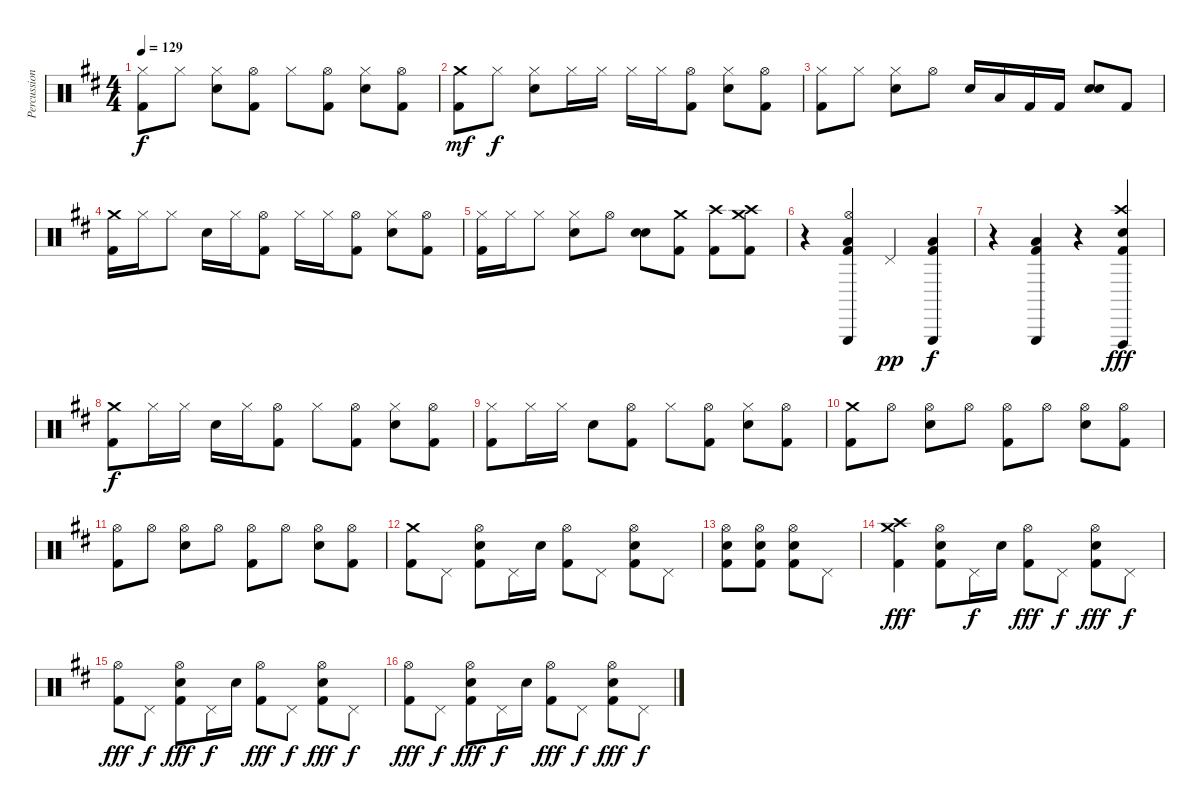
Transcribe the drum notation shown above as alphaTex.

\track ("Percussion" "Percussion") {instrument percussion}
\staff {score}
\articulation defaults
\ts (4 4)
\tempo 129
\clef neutral
\ks d
("Hi-Hat (closed)" "Kick (hit) 2").8{dy f} "Hi-Hat (closed)".8 ("Hi-Hat (closed)" "Electric Snare (hit)").8 ("Hi-Hat (open)" "Kick (hit) 2").8 "Hi-Hat (closed)".8 ("Hi-Hat (open)" "Kick (hit) 2").8 ("Hi-Hat (closed)" "Electric Snare (hit)").8 ("Hi-Hat (open)" "Kick (hit) 2").8 |
("Crash medium (hit)" "Kick (hit) 2").8{dy mf} "Hi-Hat (closed)".8{dy f} ("Hi-Hat (closed)" "Electric Snare (hit)").8 "Hi-Hat (closed)".16 "Hi-Hat (closed)".16 "Hi-Hat (closed)".16 "Hi-Hat (closed)".16 ("Hi-Hat (open)" "Kick (hit) 2").8 ("Hi-Hat (closed)" "Electric Snare (hit)").8 ("Hi-Hat (open)" "Kick (hit) 2").8 |
("Hi-Hat (closed)" "Kick (hit) 2").8 "Hi-Hat (closed)".8 ("Hi-Hat (closed)" "Electric Snare (hit)").8 "Hi-Hat (open)".8 "Electric Snare (hit)".16 "Low Floor Tom (hit)".16 "Kick (hit) 2".16 "Kick (hit) 2".16 ("Electric Snare (hit)" "Electric Snare (hit)").8{bd 240} "Kick (hit) 2".8 |
("Crash medium (hit)" "Kick (hit) 2").16 "Hi-Hat (closed)".16 "Hi-Hat (closed)".8 "Electric Snare (hit)".16 "Hi-Hat (closed)".16 ("Hi-Hat (open)" "Kick (hit) 2").8 "Hi-Hat (closed)".16 "Hi-Hat (closed)".16 ("Hi-Hat (open)" "Kick (hit) 2").8 ("Hi-Hat (closed)" "Electric Snare (hit)").8 ("Hi-Hat (open)" "Kick (hit) 2").8 |
("Hi-Hat (closed)" "Kick (hit) 2").16 "Hi-Hat (closed)".16 "Hi-Hat (closed)".8 ("Hi-Hat (closed)" "Electric Snare (hit)").8 "Hi-Hat (open)".8 ("Electric Snare (hit)" "Electric Snare (hit)").8{bd 480} ("Crash medium (hit)" "Kick (hit) 2").8 ("Crash high (hit)" "Kick (hit) 2").8 ("Crash high (hit)" "Crash medium (hit)" "Kick (hit) 2").8 |
r.4 ("Triangle (hit)" "Hi-Hat (open)" "Kick (hit) 2" "Low Floor Tom (hit)").4 "Pedal Hi-Hat (hit)".4{dy pp} ("Triangle (hit)" "Kick (hit) 2" "Low Floor Tom (hit)").4{dy f} |
r.4 ("Triangle (hit)" "Kick (hit) 2" "Low Floor Tom (hit)").4 r.4 ("Crash high (hit)" "Kick (hit) 2" "Electric Snare (hit)" "Vibraslap (hit)").4{dy fff} |
("Crash medium (hit)" "Kick (hit) 2").8{dy f} "Hi-Hat (closed)".16 "Hi-Hat (closed)".16 "Electric Snare (hit)".16 "Hi-Hat (closed)".16 ("Hi-Hat (open)" "Kick (hit) 2").8 "Hi-Hat (closed)".8 ("Hi-Hat (open)" "Kick (hit) 2").8 ("Hi-Hat (closed)" "Electric Snare (hit)").8 ("Hi-Hat (open)" "Kick (hit) 2").8 |
("Hi-Hat (closed)" "Kick (hit) 2").8 "Hi-Hat (closed)".16 "Hi-Hat (closed)".16 "Electric Snare (hit)".8 ("Hi-Hat (open)" "Kick (hit) 2").8 "Hi-Hat (closed)".8 ("Hi-Hat (open)" "Kick (hit) 2").8 ("Hi-Hat (closed)" "Electric Snare (hit)").8 ("Hi-Hat (open)" "Kick (hit) 2").8 |
("Crash medium (hit)" "Kick (hit) 2").8 "Hi-Hat (open)".8 ("Hi-Hat (open)" "Electric Snare (hit)").8 "Hi-Hat (open)".8 ("Hi-Hat (open)" "Kick (hit) 2").8 "Hi-Hat (open)".8 ("Hi-Hat (open)" "Electric Snare (hit)").8 ("Hi-Hat (open)" "Kick (hit) 2").8 |
("Hi-Hat (open)" "Kick (hit) 2").8 "Hi-Hat (open)".8 ("Hi-Hat (open)" "Electric Snare (hit)").8 "Hi-Hat (open)".8 ("Hi-Hat (open)" "Kick (hit) 2").8 "Hi-Hat (open)".8 ("Hi-Hat (open)" "Electric Snare (hit)").8 ("Hi-Hat (open)" "Kick (hit) 2").8 |
("Crash medium (hit)" "Kick (hit) 2").8 "Pedal Hi-Hat (hit)".8 ("Hi-Hat (open)" "Kick (hit) 2" "Electric Snare (hit)").8 "Pedal Hi-Hat (hit)".16 "Electric Snare (hit)".16 ("Hi-Hat (open)" "Kick (hit) 2").8 "Pedal Hi-Hat (hit)".8 ("Hi-Hat (open)" "Kick (hit) 2" "Electric Snare (hit)").8 "Pedal Hi-Hat (hit)".8 |
("Hi-Hat (open)" "Kick (hit) 2" "Electric Snare (hit)").8 ("Hi-Hat (open)" "Kick (hit) 2" "Electric Snare (hit)").8 ("Hi-Hat (open)" "Kick (hit) 2" "Electric Snare (hit)").8 "Pedal Hi-Hat (hit)".8 |
("Crash medium (hit)" "Crash high (hit)" "Kick (hit) 2").4{dy fff} ("Hi-Hat (open)" "Kick (hit) 2" "Electric Snare (hit)").8 "Pedal Hi-Hat (hit)".16{dy f} "Electric Snare (hit)".16 ("Hi-Hat (open)" "Kick (hit) 2").8{dy fff} "Pedal Hi-Hat (hit)".8{dy f} ("Hi-Hat (open)" "Kick (hit) 2" "Electric Snare (hit)").8{dy fff} "Pedal Hi-Hat (hit)".8{dy f} |
("Hi-Hat (open)" "Kick (hit) 2").8{dy fff} "Pedal Hi-Hat (hit)".8{dy f} ("Hi-Hat (open)" "Kick (hit) 2" "Electric Snare (hit)").8{dy fff} "Pedal Hi-Hat (hit)".16{dy f} "Electric Snare (hit)".16 ("Hi-Hat (open)" "Kick (hit) 2").8{dy fff} "Pedal Hi-Hat (hit)".8{dy f} ("Hi-Hat (open)" "Kick (hit) 2" "Electric Snare (hit)").8{dy fff} "Pedal Hi-Hat (hit)".8{dy f} |
("Hi-Hat (open)" "Kick (hit) 2").8{dy fff} "Pedal Hi-Hat (hit)".8{dy f} ("Hi-Hat (open)" "Kick (hit) 2" "Electric Snare (hit)").8{dy fff} "Pedal Hi-Hat (hit)".16{dy f} "Electric Snare (hit)".16 ("Hi-Hat (open)" "Kick (hit) 2").8{dy fff} "Pedal Hi-Hat (hit)".8{dy f} ("Hi-Hat (open)" "Kick (hit) 2" "Electric Snare (hit)").8{dy fff} "Pedal Hi-Hat (hit)".8{dy f}
